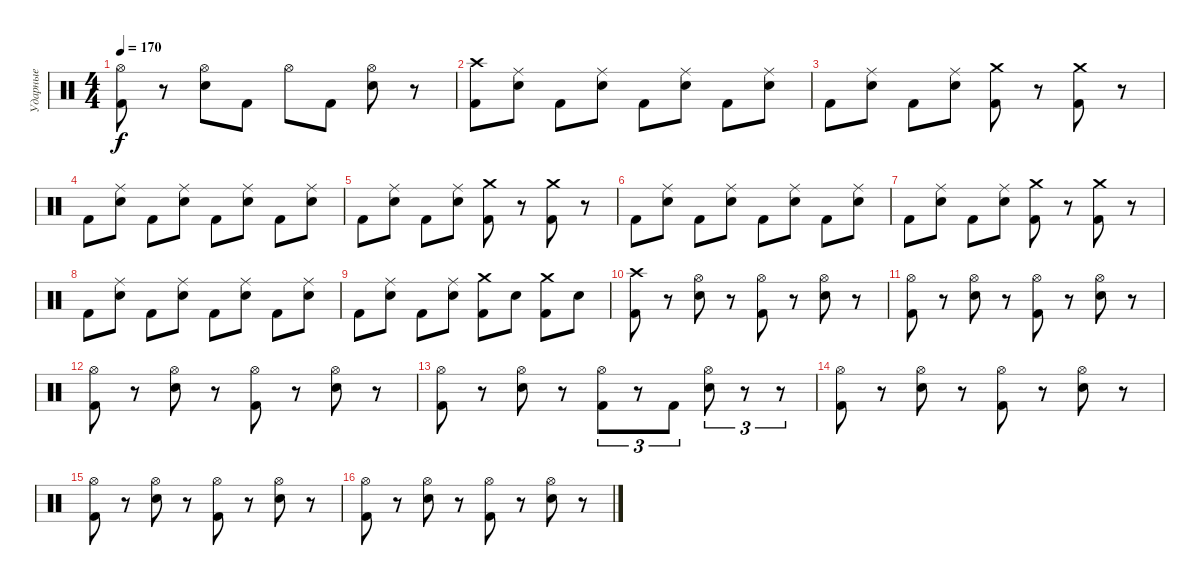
\track ("Ударные" "Ударные") {instrument percussion}
\staff {score}
\articulation defaults
\ts (4 4)
\tempo 170
\clef neutral
\ks c
("Hi-Hat (open)" "Kick (hit) 2").8{dy f} r.8 ("Hi-Hat (open)" "Electric Snare (hit)").8 "Kick (hit) 2".8 "Hi-Hat (open)".8 "Kick (hit) 2".8 ("Hi-Hat (open)" "Electric Snare (hit)").8 r.8 |
("Crash high (hit)" "Kick (hit) 2").8 ("Ride (middle)" "Electric Snare (hit)").8 "Kick (hit) 2".8 ("Ride (middle)" "Electric Snare (hit)").8 "Kick (hit) 2".8 ("Ride (middle)" "Electric Snare (hit)").8 "Kick (hit) 2".8 ("Ride (middle)" "Electric Snare (hit)").8 |
"Kick (hit) 2".8 ("Ride (middle)" "Electric Snare (hit)").8 "Kick (hit) 2".8 ("Ride (middle)" "Electric Snare (hit)").8 ("Crash medium (hit)" "Kick (hit) 2").8 r.8 ("Crash medium (hit)" "Kick (hit) 2").8 r.8 |
"Kick (hit) 2".8 ("Ride (middle)" "Electric Snare (hit)").8 "Kick (hit) 2".8 ("Ride (middle)" "Electric Snare (hit)").8 "Kick (hit) 2".8 ("Ride (middle)" "Electric Snare (hit)").8 "Kick (hit) 2".8 ("Ride (middle)" "Electric Snare (hit)").8 |
"Kick (hit) 2".8 ("Ride (middle)" "Electric Snare (hit)").8 "Kick (hit) 2".8 ("Ride (middle)" "Electric Snare (hit)").8 ("Crash medium (hit)" "Kick (hit) 2").8 r.8 ("Crash medium (hit)" "Kick (hit) 2").8 r.8 |
"Kick (hit) 2".8 ("Ride (middle)" "Electric Snare (hit)").8 "Kick (hit) 2".8 ("Ride (middle)" "Electric Snare (hit)").8 "Kick (hit) 2".8 ("Ride (middle)" "Electric Snare (hit)").8 "Kick (hit) 2".8 ("Ride (middle)" "Electric Snare (hit)").8 |
"Kick (hit) 2".8 ("Ride (middle)" "Electric Snare (hit)").8 "Kick (hit) 2".8 ("Ride (middle)" "Electric Snare (hit)").8 ("Crash medium (hit)" "Kick (hit) 2").8 r.8 ("Crash medium (hit)" "Kick (hit) 2").8 r.8 |
"Kick (hit) 2".8 ("Ride (middle)" "Electric Snare (hit)").8 "Kick (hit) 2".8 ("Ride (middle)" "Electric Snare (hit)").8 "Kick (hit) 2".8 ("Ride (middle)" "Electric Snare (hit)").8 "Kick (hit) 2".8 ("Ride (middle)" "Electric Snare (hit)").8 |
"Kick (hit) 2".8 ("Ride (middle)" "Electric Snare (hit)").8 "Kick (hit) 2".8 ("Ride (middle)" "Electric Snare (hit)").8 ("Crash medium (hit)" "Kick (hit) 2").8 "Electric Snare (hit)".8 ("Crash medium (hit)" "Kick (hit) 2").8 "Electric Snare (hit)".8 |
("Crash high (hit)" "Kick (hit) 2").8 r.8 ("Hi-Hat (open)" "Electric Snare (hit)").8 r.8 ("Hi-Hat (open)" "Kick (hit) 2").8 r.8 ("Hi-Hat (open)" "Electric Snare (hit)").8 r.8 |
("Hi-Hat (open)" "Kick (hit) 2").8 r.8 ("Hi-Hat (open)" "Electric Snare (hit)").8 r.8 ("Hi-Hat (open)" "Kick (hit) 2").8 r.8 ("Hi-Hat (open)" "Electric Snare (hit)").8 r.8 |
("Hi-Hat (open)" "Kick (hit) 2").8 r.8 ("Hi-Hat (open)" "Electric Snare (hit)").8 r.8 ("Hi-Hat (open)" "Kick (hit) 2").8 r.8 ("Hi-Hat (open)" "Electric Snare (hit)").8 r.8 |
("Hi-Hat (open)" "Kick (hit) 2").8 r.8 ("Hi-Hat (open)" "Electric Snare (hit)").8 r.8 ("Hi-Hat (open)" "Kick (hit) 2").8{tu (3 2)} r.8{tu (3 2)} "Kick (hit) 2".8{tu (3 2)} ("Hi-Hat (open)" "Electric Snare (hit)").8{tu (3 2)} r.8{tu (3 2)} r.8{tu (3 2)} |
("Hi-Hat (open)" "Kick (hit) 2").8 r.8 ("Hi-Hat (open)" "Electric Snare (hit)").8 r.8 ("Hi-Hat (open)" "Kick (hit) 2").8 r.8 ("Hi-Hat (open)" "Electric Snare (hit)").8 r.8 |
("Hi-Hat (open)" "Kick (hit) 2").8 r.8 ("Hi-Hat (open)" "Electric Snare (hit)").8 r.8 ("Hi-Hat (open)" "Kick (hit) 2").8 r.8 ("Hi-Hat (open)" "Electric Snare (hit)").8 r.8 |
("Hi-Hat (open)" "Kick (hit) 2").8 r.8 ("Hi-Hat (open)" "Electric Snare (hit)").8 r.8 ("Hi-Hat (open)" "Kick (hit) 2").8 r.8 ("Hi-Hat (open)" "Electric Snare (hit)").8 r.8
